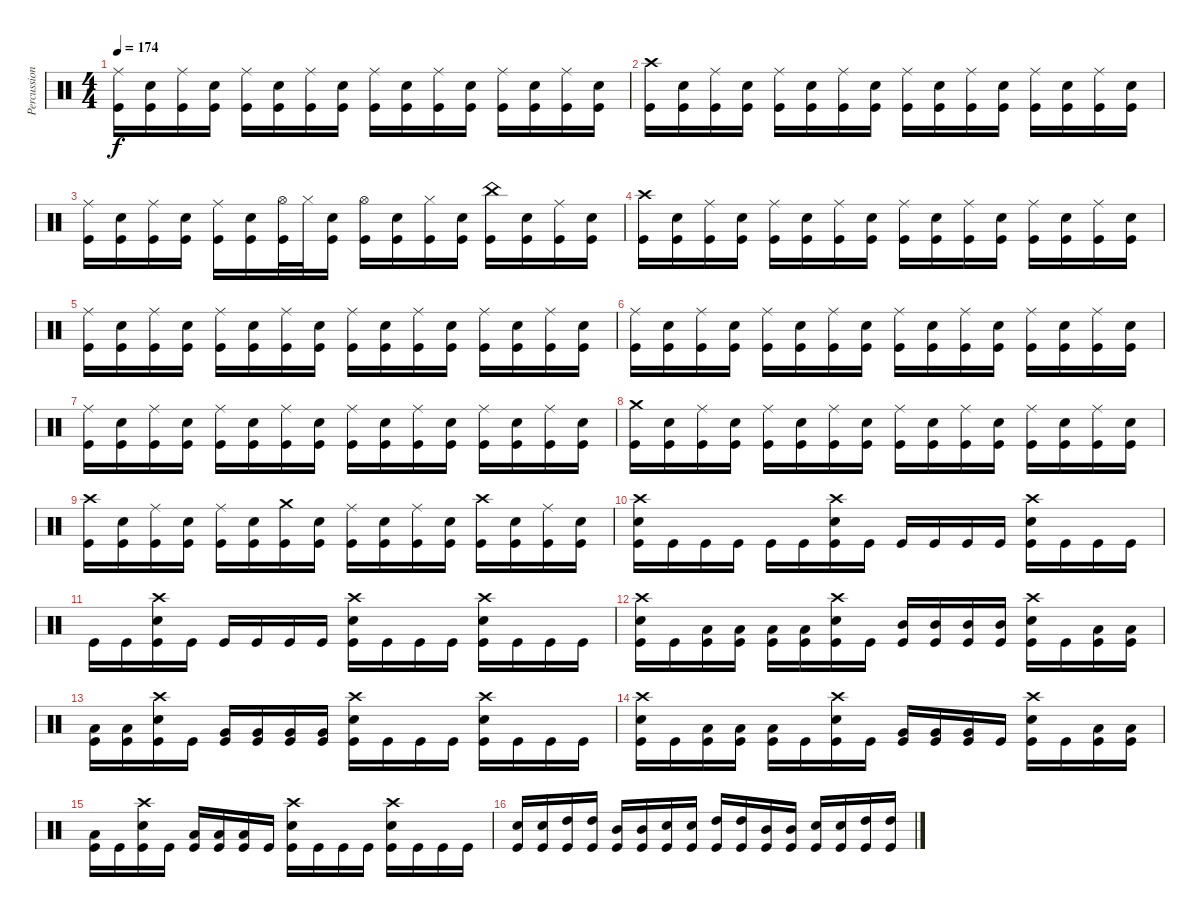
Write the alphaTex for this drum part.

\track ("Percussion" "Percussion") {instrument percussion}
\staff {score}
\articulation defaults
\ts (4 4)
\tempo 174
\clef neutral
\ks c
("Ride (middle)" "Kick (hit)").16{dy f} ("Electric Snare (hit)" "Kick (hit)").16 ("Ride (middle)" "Kick (hit)").16 ("Electric Snare (hit)" "Kick (hit)").16 ("Ride (middle)" "Kick (hit)").16 ("Electric Snare (hit)" "Kick (hit)").16 ("Ride (middle)" "Kick (hit)").16 ("Electric Snare (hit)" "Kick (hit)").16 ("Ride (middle)" "Kick (hit)").16 ("Electric Snare (hit)" "Kick (hit)").16 ("Ride (middle)" "Kick (hit)").16 ("Electric Snare (hit)" "Kick (hit)").16 ("Ride (middle)" "Kick (hit)").16 ("Electric Snare (hit)" "Kick (hit)").16 ("Ride (middle)" "Kick (hit)").16 ("Electric Snare (hit)" "Kick (hit)").16 |
("Crash high (hit)" "Kick (hit)").16 ("Electric Snare (hit)" "Kick (hit)").16 ("Ride (middle)" "Kick (hit)").16 ("Electric Snare (hit)" "Kick (hit)").16 ("Ride (middle)" "Kick (hit)").16 ("Electric Snare (hit)" "Kick (hit)").16 ("Ride (middle)" "Kick (hit)").16 ("Electric Snare (hit)" "Kick (hit)").16 ("Ride (middle)" "Kick (hit)").16 ("Electric Snare (hit)" "Kick (hit)").16 ("Ride (middle)" "Kick (hit)").16 ("Electric Snare (hit)" "Kick (hit)").16 ("Ride (middle)" "Kick (hit)").16 ("Electric Snare (hit)" "Kick (hit)").16 ("Ride (middle)" "Kick (hit)").16 ("Electric Snare (hit)" "Kick (hit)").16 |
("Ride (middle)" "Kick (hit)").16 ("Electric Snare (hit)" "Kick (hit)").16 ("Ride (middle)" "Kick (hit)").16 ("Electric Snare (hit)" "Kick (hit)").16 ("Ride (middle)" "Kick (hit)").16 ("Electric Snare (hit)" "Kick (hit)").16 ("Hi-Hat (open)" "Kick (hit)").32 "Hi-Hat (closed)".32 ("Electric Snare (hit)" "Kick (hit)").16 ("Hi-Hat (open)" "Kick (hit)").16 ("Electric Snare (hit)" "Kick (hit)").16 ("Hi-Hat (closed)" "Kick (hit)").16 ("Electric Snare (hit)" "Kick (hit)").16 ("China (hit)" "Kick (hit)").16 ("Electric Snare (hit)" "Kick (hit)").16 ("Ride (middle)" "Kick (hit)").16 ("Electric Snare (hit)" "Kick (hit)").16 |
("Crash high (hit)" "Kick (hit)").16 ("Electric Snare (hit)" "Kick (hit)").16 ("Ride (middle)" "Kick (hit)").16 ("Electric Snare (hit)" "Kick (hit)").16 ("Ride (middle)" "Kick (hit)").16 ("Electric Snare (hit)" "Kick (hit)").16 ("Ride (middle)" "Kick (hit)").16 ("Electric Snare (hit)" "Kick (hit)").16 ("Ride (middle)" "Kick (hit)").16 ("Electric Snare (hit)" "Kick (hit)").16 ("Ride (middle)" "Kick (hit)").16 ("Electric Snare (hit)" "Kick (hit)").16 ("Ride (middle)" "Kick (hit)").16 ("Electric Snare (hit)" "Kick (hit)").16 ("Ride (middle)" "Kick (hit)").16 ("Electric Snare (hit)" "Kick (hit)").16 |
("Ride (middle)" "Kick (hit)").16 ("Electric Snare (hit)" "Kick (hit)").16 ("Ride (middle)" "Kick (hit)").16 ("Electric Snare (hit)" "Kick (hit)").16 ("Ride (middle)" "Kick (hit)").16 ("Electric Snare (hit)" "Kick (hit)").16 ("Ride (middle)" "Kick (hit)").16 ("Electric Snare (hit)" "Kick (hit)").16 ("Ride (middle)" "Kick (hit)").16 ("Electric Snare (hit)" "Kick (hit)").16 ("Ride (middle)" "Kick (hit)").16 ("Electric Snare (hit)" "Kick (hit)").16 ("Ride (middle)" "Kick (hit)").16 ("Electric Snare (hit)" "Kick (hit)").16 ("Ride (middle)" "Kick (hit)").16 ("Electric Snare (hit)" "Kick (hit)").16 |
("Ride (middle)" "Kick (hit)").16 ("Electric Snare (hit)" "Kick (hit)").16 ("Ride (middle)" "Kick (hit)").16 ("Electric Snare (hit)" "Kick (hit)").16 ("Ride (middle)" "Kick (hit)").16 ("Electric Snare (hit)" "Kick (hit)").16 ("Ride (middle)" "Kick (hit)").16 ("Electric Snare (hit)" "Kick (hit)").16 ("Ride (middle)" "Kick (hit)").16 ("Electric Snare (hit)" "Kick (hit)").16 ("Ride (middle)" "Kick (hit)").16 ("Electric Snare (hit)" "Kick (hit)").16 ("Ride (middle)" "Kick (hit)").16 ("Electric Snare (hit)" "Kick (hit)").16 ("Ride (middle)" "Kick (hit)").16 ("Electric Snare (hit)" "Kick (hit)").16 |
("Ride (middle)" "Kick (hit)").16 ("Electric Snare (hit)" "Kick (hit)").16 ("Ride (middle)" "Kick (hit)").16 ("Electric Snare (hit)" "Kick (hit)").16 ("Ride (middle)" "Kick (hit)").16 ("Electric Snare (hit)" "Kick (hit)").16 ("Ride (middle)" "Kick (hit)").16 ("Electric Snare (hit)" "Kick (hit)").16 ("Ride (middle)" "Kick (hit)").16 ("Electric Snare (hit)" "Kick (hit)").16 ("Ride (middle)" "Kick (hit)").16 ("Electric Snare (hit)" "Kick (hit)").16 ("Ride (middle)" "Kick (hit)").16 ("Electric Snare (hit)" "Kick (hit)").16 ("Ride (middle)" "Kick (hit)").16 ("Electric Snare (hit)" "Kick (hit)").16 |
("Crash medium (hit)" "Kick (hit)").16 ("Electric Snare (hit)" "Kick (hit)").16 ("Ride (middle)" "Kick (hit)").16 ("Electric Snare (hit)" "Kick (hit)").16 ("Ride (middle)" "Kick (hit)").16 ("Electric Snare (hit)" "Kick (hit)").16 ("Ride (middle)" "Kick (hit)").16 ("Electric Snare (hit)" "Kick (hit)").16 ("Ride (middle)" "Kick (hit)").16 ("Electric Snare (hit)" "Kick (hit)").16 ("Ride (middle)" "Kick (hit)").16 ("Electric Snare (hit)" "Kick (hit)").16 ("Ride (middle)" "Kick (hit)").16 ("Electric Snare (hit)" "Kick (hit)").16 ("Ride (middle)" "Kick (hit)").16 ("Electric Snare (hit)" "Kick (hit)").16 |
("Crash high (hit)" "Kick (hit)").16 ("Electric Snare (hit)" "Kick (hit)").16 ("Ride (middle)" "Kick (hit)").16 ("Electric Snare (hit)" "Kick (hit)").16 ("Ride (middle)" "Kick (hit)").16 ("Electric Snare (hit)" "Kick (hit)").16 ("Crash medium (hit)" "Kick (hit)").16 ("Electric Snare (hit)" "Kick (hit)").16 ("Ride (middle)" "Kick (hit)").16 ("Electric Snare (hit)" "Kick (hit)").16 ("Ride (middle)" "Kick (hit)").16 ("Electric Snare (hit)" "Kick (hit)").16 ("Crash high (hit)" "Kick (hit)").16 ("Electric Snare (hit)" "Kick (hit)").16 ("Ride (middle)" "Kick (hit)").16 ("Electric Snare (hit)" "Kick (hit)").16 |
("Crash high (hit)" "Electric Snare (hit)" "Kick (hit)").16 "Kick (hit)".16 "Kick (hit)".16 "Kick (hit)".16 "Kick (hit)".16 "Kick (hit)".16 ("Crash high (hit)" "Electric Snare (hit)" "Kick (hit)").16 "Kick (hit)".16 "Kick (hit)".16 "Kick (hit)".16 "Kick (hit)".16 "Kick (hit)".16 ("Crash high (hit)" "Electric Snare (hit)" "Kick (hit)").16 "Kick (hit)".16 "Kick (hit)".16 "Kick (hit)".16 |
"Kick (hit)".16 "Kick (hit)".16 ("Crash high (hit)" "Electric Snare (hit)" "Kick (hit)").16 "Kick (hit)".16 "Kick (hit)".16 "Kick (hit)".16 "Kick (hit)".16 "Kick (hit)".16 ("Crash high (hit)" "Electric Snare (hit)" "Kick (hit)").16 "Kick (hit)".16 "Kick (hit)".16 "Kick (hit)".16 ("Crash high (hit)" "Electric Snare (hit)" "Kick (hit)").16 "Kick (hit)".16 "Kick (hit)".16 "Kick (hit)".16 |
("Crash high (hit)" "Electric Snare (hit)" "Kick (hit)").16 "Kick (hit)".16 ("Low Tom (hit)" "Kick (hit)").16 ("Low Tom (hit)" "Kick (hit)").16 ("Low Tom (hit)" "Kick (hit)").16 ("Low Tom (hit)" "Kick (hit)").16 ("Crash high (hit)" "Electric Snare (hit)" "Kick (hit)").16 "Kick (hit)".16 ("Mid Tom (hit)" "Kick (hit)").16 ("Mid Tom (hit)" "Kick (hit)").16 ("Mid Tom (hit)" "Kick (hit)").16 ("Mid Tom (hit)" "Kick (hit)").16 ("Crash high (hit)" "Electric Snare (hit)" "Kick (hit)").16 "Kick (hit)".16 ("Low Tom (hit)" "Kick (hit)").16 ("Low Tom (hit)" "Kick (hit)").16 |
("Low Tom (hit)" "Kick (hit)").16 ("Low Tom (hit)" "Kick (hit)").16 ("Crash high (hit)" "Electric Snare (hit)" "Kick (hit)").16 "Kick (hit)".16 ("Very Low Tom (hit)" "Kick (hit)").16 ("Very Low Tom (hit)" "Kick (hit)").16 ("Very Low Tom (hit)" "Kick (hit)").16 ("Very Low Tom (hit)" "Kick (hit)").16 ("Crash high (hit)" "Electric Snare (hit)" "Kick (hit)").16 "Kick (hit)".16 "Kick (hit)".16 "Kick (hit)".16 ("Crash high (hit)" "Electric Snare (hit)" "Kick (hit)").16 "Kick (hit)".16 "Kick (hit)".16 "Kick (hit)".16 |
("Crash high (hit)" "Electric Snare (hit)" "Kick (hit)").16 "Kick (hit)".16 ("Low Tom (hit)" "Kick (hit)").16 ("Low Tom (hit)" "Kick (hit)").16 ("Low Tom (hit)" "Kick (hit)").16 "Kick (hit)".16 ("Crash high (hit)" "Electric Snare (hit)" "Kick (hit)").16 "Kick (hit)".16 ("Very Low Tom (hit)" "Kick (hit)").16 ("Very Low Tom (hit)" "Kick (hit)").16 ("Very Low Tom (hit)" "Kick (hit)").16 "Kick (hit)".16 ("Crash high (hit)" "Electric Snare (hit)" "Kick (hit)").16 "Kick (hit)".16 ("Low Floor Tom (hit)" "Kick (hit)").16 ("Low Floor Tom (hit)" "Kick (hit)").16 |
("Low Floor Tom (hit)" "Kick (hit)").16 "Kick (hit)".16 ("Crash high (hit)" "Electric Snare (hit)" "Kick (hit)").16 "Kick (hit)".16 ("Low Floor Tom (hit)" "Kick (hit)").16 ("Low Floor Tom (hit)" "Kick (hit)").16 ("Low Floor Tom (hit)" "Kick (hit)").16 "Kick (hit)".16 ("Crash high (hit)" "Electric Snare (hit)" "Kick (hit)").16 "Kick (hit)".16 "Kick (hit)".16 "Kick (hit)".16 ("Crash high (hit)" "Electric Snare (hit)" "Kick (hit)").16 "Kick (hit)".16 "Kick (hit)".16 "Kick (hit)".16 |
("Electric Snare (hit)" "Kick (hit)").16 ("Electric Snare (hit)" "Kick (hit)").16 ("High Tom (hit)" "Kick (hit)").16 ("High Tom (hit)" "Kick (hit)").16 ("Mid Tom (hit)" "Kick (hit)").16 ("Mid Tom (hit)" "Kick (hit)").16 ("Electric Snare (hit)" "Kick (hit)").16 ("Electric Snare (hit)" "Kick (hit)").16 ("High Tom (hit)" "Kick (hit)").16 ("High Tom (hit)" "Kick (hit)").16 ("Mid Tom (hit)" "Kick (hit)").16 ("Mid Tom (hit)" "Kick (hit)").16 ("Electric Snare (hit)" "Kick (hit)").16 ("Electric Snare (hit)" "Kick (hit)").16 ("High Tom (hit)" "Kick (hit)").16 ("High Tom (hit)" "Kick (hit)").16
